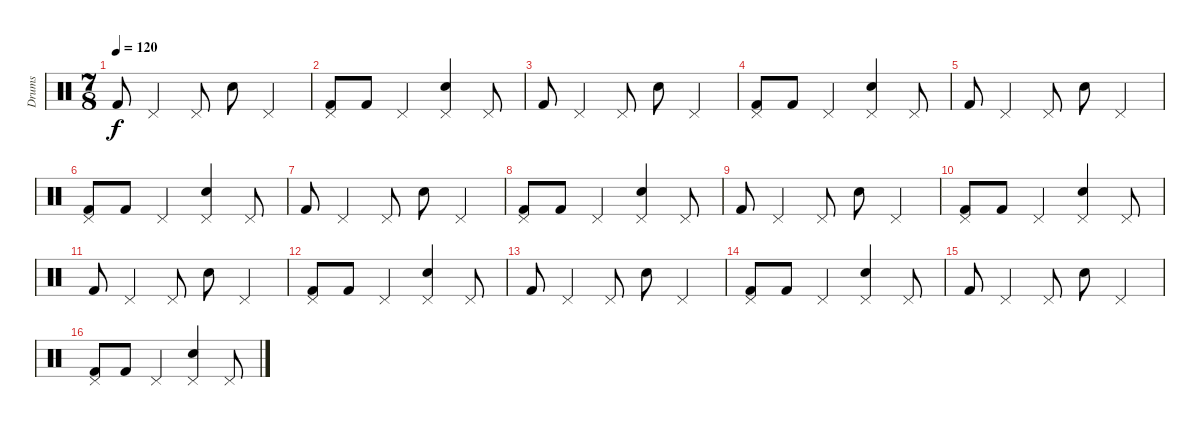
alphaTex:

\track ("Drums" "Drums") {instrument percussion}
\staff {score}
\articulation defaults
\ts (7 8)
\tempo 120
\clef neutral
\ks c "Kick (hit) 2".8{dy f} "Pedal Hi-Hat (hit)".4 "Pedal Hi-Hat (hit)".8 "Electric Snare (hit)".8 "Pedal Hi-Hat (hit)".4
|
("Pedal Hi-Hat (hit)" "Kick (hit) 2").8 "Kick (hit) 2".8 "Pedal Hi-Hat (hit)".4 ("Pedal Hi-Hat (hit)" "Electric Snare (hit)").4 "Pedal Hi-Hat (hit)".8 |
"Kick (hit) 2".8 "Pedal Hi-Hat (hit)".4 "Pedal Hi-Hat (hit)".8 "Electric Snare (hit)".8 "Pedal Hi-Hat (hit)".4 |
("Pedal Hi-Hat (hit)" "Kick (hit) 2").8 "Kick (hit) 2".8 "Pedal Hi-Hat (hit)".4 ("Pedal Hi-Hat (hit)" "Electric Snare (hit)").4 "Pedal Hi-Hat (hit)".8 |
"Kick (hit) 2".8 "Pedal Hi-Hat (hit)".4 "Pedal Hi-Hat (hit)".8 "Electric Snare (hit)".8 "Pedal Hi-Hat (hit)".4 |
("Pedal Hi-Hat (hit)" "Kick (hit) 2").8 "Kick (hit) 2".8 "Pedal Hi-Hat (hit)".4 ("Pedal Hi-Hat (hit)" "Electric Snare (hit)").4 "Pedal Hi-Hat (hit)".8 |
"Kick (hit) 2".8 "Pedal Hi-Hat (hit)".4 "Pedal Hi-Hat (hit)".8 "Electric Snare (hit)".8 "Pedal Hi-Hat (hit)".4 |
("Pedal Hi-Hat (hit)" "Kick (hit) 2").8 "Kick (hit) 2".8 "Pedal Hi-Hat (hit)".4 ("Pedal Hi-Hat (hit)" "Electric Snare (hit)").4 "Pedal Hi-Hat (hit)".8 |
"Kick (hit) 2".8 "Pedal Hi-Hat (hit)".4 "Pedal Hi-Hat (hit)".8 "Electric Snare (hit)".8 "Pedal Hi-Hat (hit)".4 |
("Pedal Hi-Hat (hit)" "Kick (hit) 2").8 "Kick (hit) 2".8 "Pedal Hi-Hat (hit)".4 ("Pedal Hi-Hat (hit)" "Electric Snare (hit)").4 "Pedal Hi-Hat (hit)".8 |
"Kick (hit) 2".8 "Pedal Hi-Hat (hit)".4 "Pedal Hi-Hat (hit)".8 "Electric Snare (hit)".8 "Pedal Hi-Hat (hit)".4 |
("Pedal Hi-Hat (hit)" "Kick (hit) 2").8 "Kick (hit) 2".8 "Pedal Hi-Hat (hit)".4 ("Pedal Hi-Hat (hit)" "Electric Snare (hit)").4 "Pedal Hi-Hat (hit)".8 |
"Kick (hit) 2".8 "Pedal Hi-Hat (hit)".4 "Pedal Hi-Hat (hit)".8 "Electric Snare (hit)".8 "Pedal Hi-Hat (hit)".4 |
("Pedal Hi-Hat (hit)" "Kick (hit) 2").8 "Kick (hit) 2".8 "Pedal Hi-Hat (hit)".4 ("Pedal Hi-Hat (hit)" "Electric Snare (hit)").4 "Pedal Hi-Hat (hit)".8 |
"Kick (hit) 2".8 "Pedal Hi-Hat (hit)".4 "Pedal Hi-Hat (hit)".8 "Electric Snare (hit)".8 "Pedal Hi-Hat (hit)".4 |
("Pedal Hi-Hat (hit)" "Kick (hit) 2").8 "Kick (hit) 2".8 "Pedal Hi-Hat (hit)".4 ("Pedal Hi-Hat (hit)" "Electric Snare (hit)").4 "Pedal Hi-Hat (hit)".8
